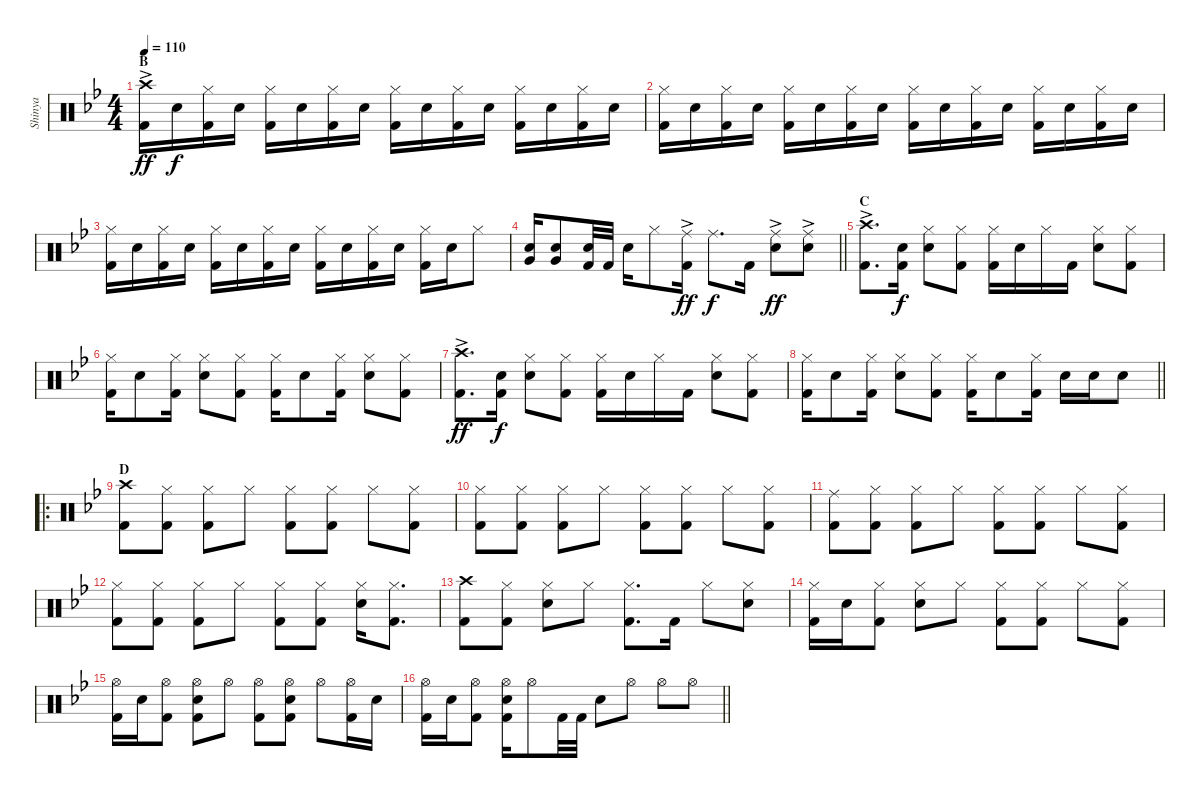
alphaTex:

\track ("Shinya" "Shinya") {instrument percussion}
\staff {score}
\articulation defaults
\ts (4 4)
\section ("" "B")
\tempo 110
\clef neutral
\ks bb
("Crash high (hit)"{ac} "Kick (hit) 2").16{dy ff} "Snare (hit) 2".16{dy f} ("Hi-Hat (closed)" "Kick (hit) 2").16 "Snare (hit) 2".16 ("Hi-Hat (closed)" "Kick (hit) 2").16 "Snare (hit) 2".16 ("Hi-Hat (closed)" "Kick (hit) 2").16 "Snare (hit) 2".16 ("Hi-Hat (closed)" "Kick (hit) 2").16 "Snare (hit) 2".16 ("Hi-Hat (closed)" "Kick (hit) 2").16 "Snare (hit) 2".16 ("Hi-Hat (closed)" "Kick (hit) 2").16 "Snare (hit) 2".16 ("Hi-Hat (closed)" "Kick (hit) 2").16 "Snare (hit) 2".16 |
("Hi-Hat (closed)" "Kick (hit) 2").16 "Snare (hit) 2".16 ("Hi-Hat (closed)" "Kick (hit) 2").16 "Snare (hit) 2".16 ("Hi-Hat (closed)" "Kick (hit) 2").16 "Snare (hit) 2".16 ("Hi-Hat (closed)" "Kick (hit) 2").16 "Snare (hit) 2".16 ("Hi-Hat (closed)" "Kick (hit) 2").16 "Snare (hit) 2".16 ("Hi-Hat (closed)" "Kick (hit) 2").16 "Snare (hit) 2".16 ("Hi-Hat (closed)" "Kick (hit) 2").16 "Snare (hit) 2".16 ("Hi-Hat (closed)" "Kick (hit) 2").16 "Snare (hit) 2".16 |
("Hi-Hat (closed)" "Kick (hit) 2").16 "Snare (hit) 2".16 ("Hi-Hat (closed)" "Kick (hit) 2").16 "Snare (hit) 2".16 ("Hi-Hat (closed)" "Kick (hit) 2").16 "Snare (hit) 2".16 ("Hi-Hat (closed)" "Kick (hit) 2").16 "Snare (hit) 2".16 ("Hi-Hat (closed)" "Kick (hit) 2").16 "Snare (hit) 2".16 ("Hi-Hat (closed)" "Kick (hit) 2").16 "Snare (hit) 2".16 ("Hi-Hat (closed)" "Kick (hit) 2").16 "Snare (hit) 2".16 "Hi-Hat (closed)".8 |
\barLineRight lightlight
("Snare (hit) 2" "Very Low Tom (hit)").16 ("Snare (hit) 2" "Very Low Tom (hit)").8 ("Snare (hit) 2" "Kick (hit) 2").32 "Kick (hit) 2".32 "Snare (hit) 2".16 "Hi-Hat (closed)".8 ("Ride (middle)" "Kick (hit) 2"{ac}).16{dy ff} "Ride (middle)".8{d dy f} "Kick (hit) 2".16 ("Ride (middle)"{ac} "Snare (hit) 2").8{dy ff} ("Ride (middle)"{ac} "Snare (hit) 2").8 |
\section ("" "C")
("Crash high (hit)" "Kick (hit) 2"{ac}).8{d} ("Snare (hit) 2" "Kick (hit) 2").16{dy f} ("Hi-Hat (closed)" "Snare (hit) 2").8 ("Hi-Hat (closed)" "Kick (hit) 2").8 ("Hi-Hat (closed)" "Kick (hit) 2").16 "Snare (hit) 2".16 "Hi-Hat (closed)".16 "Kick (hit) 2".16 ("Hi-Hat (closed)" "Snare (hit) 2").8 ("Hi-Hat (closed)" "Kick (hit) 2").8 |
("Hi-Hat (closed)" "Kick (hit) 2").16 "Snare (hit) 2".8 ("Hi-Hat (closed)" "Kick (hit) 2").16 ("Hi-Hat (closed)" "Snare (hit) 2").8 ("Hi-Hat (closed)" "Kick (hit) 2").8 ("Hi-Hat (closed)" "Kick (hit) 2").16 "Snare (hit) 2".8 ("Hi-Hat (closed)" "Kick (hit) 2").16 ("Hi-Hat (closed)" "Snare (hit) 2").8 ("Hi-Hat (closed)" "Kick (hit) 2").8 |
("Crash high (hit)" "Kick (hit) 2"{ac}).8{d dy ff} ("Snare (hit) 2" "Kick (hit) 2").16{dy f} ("Hi-Hat (closed)" "Snare (hit) 2").8 ("Hi-Hat (closed)" "Kick (hit) 2").8 ("Hi-Hat (closed)" "Kick (hit) 2").16 "Snare (hit) 2".16 "Hi-Hat (closed)".16 "Kick (hit) 2".16 ("Hi-Hat (closed)" "Snare (hit) 2").8 ("Hi-Hat (closed)" "Kick (hit) 2").8 |
\barLineRight lightlight
("Hi-Hat (closed)" "Kick (hit) 2").16 "Snare (hit) 2".8 ("Hi-Hat (closed)" "Kick (hit) 2").16 ("Hi-Hat (closed)" "Snare (hit) 2").8 ("Hi-Hat (closed)" "Kick (hit) 2").8 ("Hi-Hat (closed)" "Kick (hit) 2").16 "Snare (hit) 2".8 ("Hi-Hat (closed)" "Kick (hit) 2").16 "Snare (hit) 2".16 "Snare (hit) 2".16 "Snare (hit) 2".8 |
\ro
\section ("" "D")
("Crash high (hit)" "Kick (hit) 2").8 ("Hi-Hat (closed)" "Kick (hit) 2").8 ("Hi-Hat (closed)" "Kick (hit) 2").8 "Hi-Hat (closed)".8 ("Hi-Hat (closed)" "Kick (hit) 2").8 ("Hi-Hat (closed)" "Kick (hit) 2").8 "Hi-Hat (closed)".8 ("Hi-Hat (closed)" "Kick (hit) 2").8 |
("Hi-Hat (closed)" "Kick (hit) 2").8 ("Hi-Hat (closed)" "Kick (hit) 2").8 ("Hi-Hat (closed)" "Kick (hit) 2").8 "Hi-Hat (closed)".8 ("Hi-Hat (closed)" "Kick (hit) 2").8 ("Hi-Hat (closed)" "Kick (hit) 2").8 "Hi-Hat (closed)".8 ("Hi-Hat (closed)" "Kick (hit) 2").8 |
("Ride (middle)" "Kick (hit) 2").8 ("Hi-Hat (closed)" "Kick (hit) 2").8 ("Hi-Hat (closed)" "Kick (hit) 2").8 "Hi-Hat (closed)".8 ("Hi-Hat (closed)" "Kick (hit) 2").8 ("Hi-Hat (closed)" "Kick (hit) 2").8 "Hi-Hat (closed)".8 ("Hi-Hat (closed)" "Kick (hit) 2").8 |
("Hi-Hat (closed)" "Kick (hit) 2").8 ("Hi-Hat (closed)" "Kick (hit) 2").8 ("Hi-Hat (closed)" "Kick (hit) 2").8 "Hi-Hat (closed)".8 ("Hi-Hat (closed)" "Kick (hit) 2").8 ("Hi-Hat (closed)" "Kick (hit) 2").8 ("Hi-Hat (closed)" "Snare (hit) 2").16 ("Hi-Hat (closed)" "Kick (hit) 2").8{d} |
("Crash high (hit)" "Kick (hit) 2").8 ("Hi-Hat (closed)" "Kick (hit) 2").8 ("Hi-Hat (closed)" "Snare (hit) 2").8 "Hi-Hat (closed)".8 ("Hi-Hat (closed)" "Kick (hit) 2").8{d} "Kick (hit) 2".16 "Hi-Hat (closed)".8 ("Hi-Hat (closed)" "Snare (hit) 2").8 |
("Hi-Hat (closed)" "Kick (hit) 2").16 "Snare (hit) 2".16 ("Hi-Hat (closed)" "Kick (hit) 2").8 ("Hi-Hat (closed)" "Snare (hit) 2").8 "Hi-Hat (closed)".8 ("Hi-Hat (closed)" "Kick (hit) 2").8 ("Hi-Hat (closed)" "Kick (hit) 2").8 "Hi-Hat (closed)".8 ("Hi-Hat (closed)" "Kick (hit) 2").8 |
("Hi-Hat (open)" "Kick (hit) 2").16 "Snare (hit) 2".16 ("Hi-Hat (open)" "Kick (hit) 2").8 ("Hi-Hat (open)" "Snare (hit) 2" "Kick (hit) 2").8 "Hi-Hat (open)".8 ("Hi-Hat (open)" "Kick (hit) 2").8 ("Hi-Hat (open)" "Snare (hit) 2" "Kick (hit) 2").8 "Hi-Hat (open)".8 ("Hi-Hat (open)" "Kick (hit) 2").16 "Snare (hit) 2".16 |
\barLineRight lightlight
("Hi-Hat (open)" "Kick (hit) 2").16 "Snare (hit) 2".16 ("Hi-Hat (open)" "Kick (hit) 2").8 ("Hi-Hat (open)" "Snare (hit) 2" "Kick (hit) 2").16 "Hi-Hat (open)".8 "Kick (hit) 2".32 "Kick (hit) 2".32 "Snare (hit) 2".8 "Hi-Hat (open)".8 "Hi-Hat (open)".8 "Hi-Hat (open)".8
